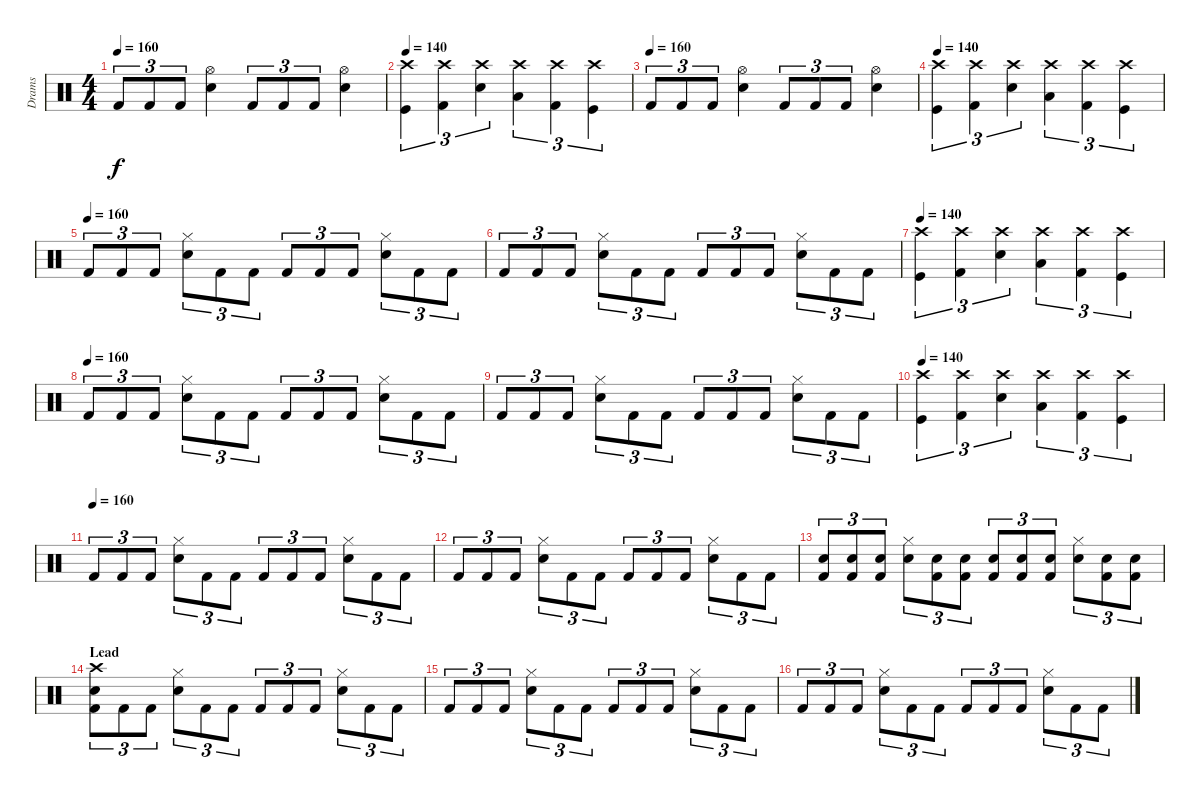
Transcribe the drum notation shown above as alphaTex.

\track ("Drams" "Drams") {instrument percussion}
\staff {score}
\articulation defaults
\ts (4 4)
\tempo 160
\clef neutral
\ks c "Kick (hit) 2".8{tu (3 2) dy f} "Kick (hit) 2".8{tu (3 2)} "Kick (hit) 2".8{tu (3 2)}
("Hi-Hat (open)" "Snare (hit) 2").4 "Kick (hit) 2".8{tu (3 2)} "Kick (hit) 2".8{tu (3 2)} "Kick (hit) 2".8{tu (3 2)} ("Hi-Hat (open)" "Snare (hit) 2").4 |
\tempo 140
("Crash high (hit)" "Kick (hit)").4{tu (3 2)} ("Crash high (hit)" "Kick (hit) 2").4{tu (3 2)} ("Crash high (hit)" "Snare (hit) 2").4{tu (3 2)} ("Crash high (hit)" "Low Tom (hit)").4{tu (3 2)} ("Crash high (hit)" "Kick (hit) 2").4{tu (3 2)} ("Crash high (hit)" "Kick (hit)").4{tu (3 2)} |
\tempo (160)
"Kick (hit) 2".8{tu (3 2)} "Kick (hit) 2".8{tu (3 2)} "Kick (hit) 2".8{tu (3 2)} ("Hi-Hat (open)" "Snare (hit) 2").4 "Kick (hit) 2".8{tu (3 2)} "Kick (hit) 2".8{tu (3 2)} "Kick (hit) 2".8{tu (3 2)} ("Hi-Hat (open)" "Snare (hit) 2").4 |
\tempo 140
("Crash high (hit)" "Kick (hit)").4{tu (3 2)} ("Crash high (hit)" "Kick (hit) 2").4{tu (3 2)} ("Crash high (hit)" "Snare (hit) 2").4{tu (3 2)} ("Crash high (hit)" "Low Tom (hit)").4{tu (3 2)} ("Crash high (hit)" "Kick (hit) 2").4{tu (3 2)} ("Crash high (hit)" "Kick (hit)").4{tu (3 2)} |
\tempo (160)
"Kick (hit) 2".8{tu (3 2)} "Kick (hit) 2".8{tu (3 2)} "Kick (hit) 2".8{tu (3 2)} ("Hi-Hat (closed)" "Snare (hit) 2").8{tu (3 2)} "Kick (hit) 2".8{tu (3 2)} "Kick (hit) 2".8{tu (3 2)} "Kick (hit) 2".8{tu (3 2)} "Kick (hit) 2".8{tu (3 2)} "Kick (hit) 2".8{tu (3 2)} ("Hi-Hat (closed)" "Snare (hit) 2").8{tu (3 2)} "Kick (hit) 2".8{tu (3 2)} "Kick (hit) 2".8{tu (3 2)} |
"Kick (hit) 2".8{tu (3 2)} "Kick (hit) 2".8{tu (3 2)} "Kick (hit) 2".8{tu (3 2)} ("Hi-Hat (closed)" "Snare (hit) 2").8{tu (3 2)} "Kick (hit) 2".8{tu (3 2)} "Kick (hit) 2".8{tu (3 2)} "Kick (hit) 2".8{tu (3 2)} "Kick (hit) 2".8{tu (3 2)} "Kick (hit) 2".8{tu (3 2)} ("Hi-Hat (closed)" "Snare (hit) 2").8{tu (3 2)} "Kick (hit) 2".8{tu (3 2)} "Kick (hit) 2".8{tu (3 2)} |
\tempo 140
("Crash high (hit)" "Kick (hit)").4{tu (3 2)} ("Crash high (hit)" "Kick (hit) 2").4{tu (3 2)} ("Crash high (hit)" "Snare (hit) 2").4{tu (3 2)} ("Crash high (hit)" "Low Tom (hit)").4{tu (3 2)} ("Crash high (hit)" "Kick (hit) 2").4{tu (3 2)} ("Crash high (hit)" "Kick (hit)").4{tu (3 2)} |
\tempo (160)
"Kick (hit) 2".8{tu (3 2)} "Kick (hit) 2".8{tu (3 2)} "Kick (hit) 2".8{tu (3 2)} ("Hi-Hat (closed)" "Snare (hit) 2").8{tu (3 2)} "Kick (hit) 2".8{tu (3 2)} "Kick (hit) 2".8{tu (3 2)} "Kick (hit) 2".8{tu (3 2)} "Kick (hit) 2".8{tu (3 2)} "Kick (hit) 2".8{tu (3 2)} ("Hi-Hat (closed)" "Snare (hit) 2").8{tu (3 2)} "Kick (hit) 2".8{tu (3 2)} "Kick (hit) 2".8{tu (3 2)} |
"Kick (hit) 2".8{tu (3 2)} "Kick (hit) 2".8{tu (3 2)} "Kick (hit) 2".8{tu (3 2)} ("Hi-Hat (closed)" "Snare (hit) 2").8{tu (3 2)} "Kick (hit) 2".8{tu (3 2)} "Kick (hit) 2".8{tu (3 2)} "Kick (hit) 2".8{tu (3 2)} "Kick (hit) 2".8{tu (3 2)} "Kick (hit) 2".8{tu (3 2)} ("Hi-Hat (closed)" "Snare (hit) 2").8{tu (3 2)} "Kick (hit) 2".8{tu (3 2)} "Kick (hit) 2".8{tu (3 2)} |
\tempo 140
("Crash high (hit)" "Kick (hit)").4{tu (3 2)} ("Crash high (hit)" "Kick (hit) 2").4{tu (3 2)} ("Crash high (hit)" "Snare (hit) 2").4{tu (3 2)} ("Crash high (hit)" "Low Tom (hit)").4{tu (3 2)} ("Crash high (hit)" "Kick (hit) 2").4{tu (3 2)} ("Crash high (hit)" "Kick (hit)").4{tu (3 2)} |
\tempo (160)
"Kick (hit) 2".8{tu (3 2)} "Kick (hit) 2".8{tu (3 2)} "Kick (hit) 2".8{tu (3 2)} ("Hi-Hat (closed)" "Snare (hit) 2").8{tu (3 2)} "Kick (hit) 2".8{tu (3 2)} "Kick (hit) 2".8{tu (3 2)} "Kick (hit) 2".8{tu (3 2)} "Kick (hit) 2".8{tu (3 2)} "Kick (hit) 2".8{tu (3 2)} ("Hi-Hat (closed)" "Snare (hit) 2").8{tu (3 2)} "Kick (hit) 2".8{tu (3 2)} "Kick (hit) 2".8{tu (3 2)} |
"Kick (hit) 2".8{tu (3 2)} "Kick (hit) 2".8{tu (3 2)} "Kick (hit) 2".8{tu (3 2)} ("Hi-Hat (closed)" "Snare (hit) 2").8{tu (3 2)} "Kick (hit) 2".8{tu (3 2)} "Kick (hit) 2".8{tu (3 2)} "Kick (hit) 2".8{tu (3 2)} "Kick (hit) 2".8{tu (3 2)} "Kick (hit) 2".8{tu (3 2)} ("Hi-Hat (closed)" "Snare (hit) 2").8{tu (3 2)} "Kick (hit) 2".8{tu (3 2)} "Kick (hit) 2".8{tu (3 2)} |
("Snare (hit) 2" "Kick (hit) 2").8{tu (3 2)} ("Snare (hit) 2" "Kick (hit) 2").8{tu (3 2)} ("Snare (hit) 2" "Kick (hit) 2").8{tu (3 2)} ("Hi-Hat (closed)" "Snare (hit) 2").8{tu (3 2)} ("Snare (hit) 2" "Kick (hit) 2").8{tu (3 2)} ("Snare (hit) 2" "Kick (hit) 2").8{tu (3 2)} ("Snare (hit) 2" "Kick (hit) 2").8{tu (3 2)} ("Snare (hit) 2" "Kick (hit) 2").8{tu (3 2)} ("Snare (hit) 2" "Kick (hit) 2").8{tu (3 2)} ("Hi-Hat (closed)" "Snare (hit) 2").8{tu (3 2)} ("Snare (hit) 2" "Kick (hit) 2").8{tu (3 2)} ("Snare (hit) 2" "Kick (hit) 2").8{tu (3 2)} |
\section ("" "Lead")
("Snare (hit) 2" "Crash high (hit)" "Kick (hit) 2").8{tu (3 2)} "Kick (hit) 2".8{tu (3 2)} "Kick (hit) 2".8{tu (3 2)} ("Hi-Hat (closed)" "Snare (hit) 2").8{tu (3 2)} "Kick (hit) 2".8{tu (3 2)} "Kick (hit) 2".8{tu (3 2)} "Kick (hit) 2".8{tu (3 2)} "Kick (hit) 2".8{tu (3 2)} "Kick (hit) 2".8{tu (3 2)} ("Hi-Hat (closed)" "Snare (hit) 2").8{tu (3 2)} "Kick (hit) 2".8{tu (3 2)} "Kick (hit) 2".8{tu (3 2)} |
"Kick (hit) 2".8{tu (3 2)} "Kick (hit) 2".8{tu (3 2)} "Kick (hit) 2".8{tu (3 2)} ("Hi-Hat (closed)" "Snare (hit) 2").8{tu (3 2)} "Kick (hit) 2".8{tu (3 2)} "Kick (hit) 2".8{tu (3 2)} "Kick (hit) 2".8{tu (3 2)} "Kick (hit) 2".8{tu (3 2)} "Kick (hit) 2".8{tu (3 2)} ("Hi-Hat (closed)" "Snare (hit) 2").8{tu (3 2)} "Kick (hit) 2".8{tu (3 2)} "Kick (hit) 2".8{tu (3 2)} |
"Kick (hit) 2".8{tu (3 2)} "Kick (hit) 2".8{tu (3 2)} "Kick (hit) 2".8{tu (3 2)} ("Hi-Hat (closed)" "Snare (hit) 2").8{tu (3 2)} "Kick (hit) 2".8{tu (3 2)} "Kick (hit) 2".8{tu (3 2)} "Kick (hit) 2".8{tu (3 2)} "Kick (hit) 2".8{tu (3 2)} "Kick (hit) 2".8{tu (3 2)} ("Hi-Hat (closed)" "Snare (hit) 2").8{tu (3 2)} "Kick (hit) 2".8{tu (3 2)} "Kick (hit) 2".8{tu (3 2)}
